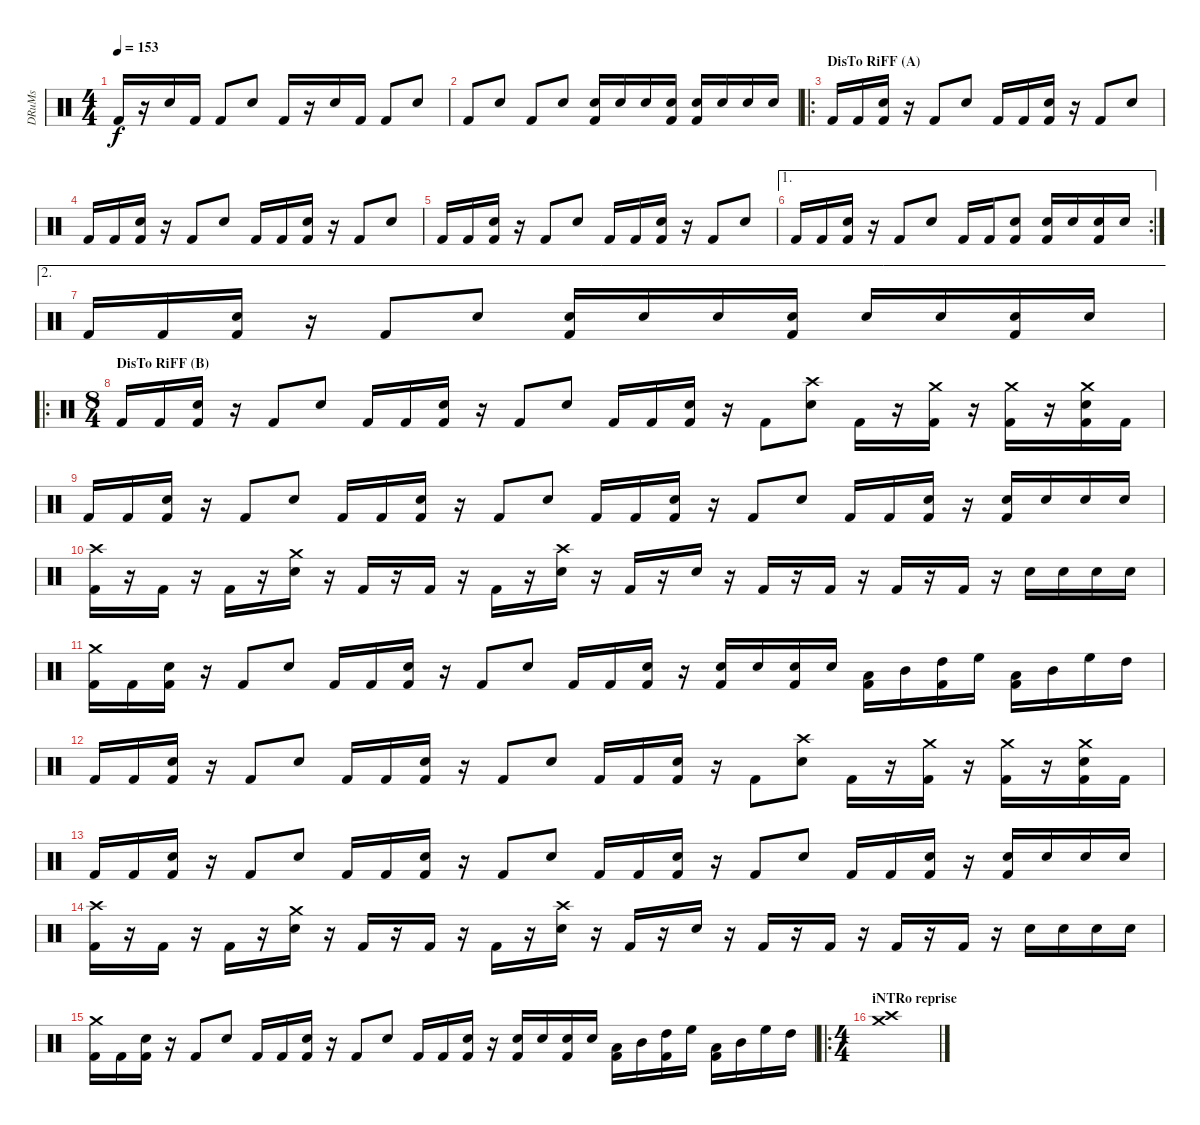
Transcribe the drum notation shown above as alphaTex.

\track ("DRuMs" "DRuMs") {instrument percussion}
\staff {score}
\articulation defaults
\ts (4 4)
\tempo 153
\clef neutral
\ks c "Kick (hit) 2".16{dy f}
r.16 "Electric Snare (hit)".16 "Kick (hit) 2".16 "Kick (hit) 2".8 "Electric Snare (hit)".8 "Kick (hit) 2".16 r.16 "Electric Snare (hit)".16 "Kick (hit) 2".16 "Kick (hit) 2".8 "Electric Snare (hit)".8 |
"Kick (hit) 2".8 "Electric Snare (hit)".8 "Kick (hit) 2".8 "Electric Snare (hit)".8 ("Metronome (bell)" "Kick (hit) 2").16 "Metronome (bell)".16 "Metronome (bell)".16 ("Metronome (bell)" "Kick (hit) 2").16 ("Metronome (bell)" "Kick (hit) 2").16 "Metronome (bell)".16 "Metronome (bell)".16 "Metronome (bell)".16 |
\ro
\section ("" "DisTo RiFF (A)")
"Kick (hit) 2".16 "Kick (hit) 2".16 ("Electric Snare (hit)" "Kick (hit) 2").16 r.16 "Kick (hit) 2".8 "Electric Snare (hit)".8 "Kick (hit) 2".16 "Kick (hit) 2".16 ("Electric Snare (hit)" "Kick (hit) 2").16 r.16 "Kick (hit) 2".8 "Electric Snare (hit)".8 |
"Kick (hit) 2".16 "Kick (hit) 2".16 ("Electric Snare (hit)" "Kick (hit) 2").16 r.16 "Kick (hit) 2".8 "Electric Snare (hit)".8 "Kick (hit) 2".16 "Kick (hit) 2".16 ("Electric Snare (hit)" "Kick (hit) 2").16 r.16 "Kick (hit) 2".8 "Electric Snare (hit)".8 |
"Kick (hit) 2".16 "Kick (hit) 2".16 ("Electric Snare (hit)" "Kick (hit) 2").16 r.16 "Kick (hit) 2".8 "Electric Snare (hit)".8 "Kick (hit) 2".16 "Kick (hit) 2".16 ("Electric Snare (hit)" "Kick (hit) 2").16 r.16 "Kick (hit) 2".8 "Electric Snare (hit)".8 |
\ae 1
\rc 2 "Kick (hit) 2".16 "Kick (hit) 2".16
("Electric Snare (hit)" "Kick (hit) 2").16 r.16 "Kick (hit) 2".8 "Electric Snare (hit)".8 "Kick (hit) 2".16 "Kick (hit) 2".16 ("Electric Snare (hit)" "Kick (hit) 2").8 ("Metronome (bell)" "Kick (hit) 2").16 "Metronome (bell)".16 ("Metronome (bell)" "Kick (hit) 2").16 "Metronome (bell)".16 |
\ae 2 "Kick (hit) 2".16 "Kick (hit) 2".16
("Electric Snare (hit)" "Kick (hit) 2").16 r.16 "Kick (hit) 2".8 "Electric Snare (hit)".8 ("Metronome (bell)" "Kick (hit) 2").16 "Metronome (bell)".16 "Metronome (bell)".16 ("Metronome (bell)" "Kick (hit) 2").16 "Metronome (bell)".16 "Metronome (bell)".16 ("Metronome (bell)" "Kick (hit) 2").16 "Metronome (bell)".16 |
\ro
\ts (8 4)
\section ("" "DisTo RiFF (B)")
"Kick (hit) 2".16 "Kick (hit) 2".16 ("Electric Snare (hit)" "Kick (hit) 2").16 r.16 "Kick (hit) 2".8 "Electric Snare (hit)".8 "Kick (hit) 2".16 "Kick (hit) 2".16 ("Electric Snare (hit)" "Kick (hit) 2").16 r.16 "Kick (hit) 2".8 "Electric Snare (hit)".8 "Kick (hit) 2".16 "Kick (hit) 2".16 ("Electric Snare (hit)" "Kick (hit) 2").16 r.16 "Kick (hit) 2".8 ("Crash high (hit)" "Electric Snare (hit)").8 "Kick (hit) 2".16 r.16 ("Crash medium (hit)" "Kick (hit) 2").16 r.16 ("Crash medium (hit)" "Kick (hit) 2").16 r.16 ("Crash medium (hit)" "Electric Snare (hit)" "Kick (hit) 2").16 "Kick (hit) 2".16 |
"Kick (hit) 2".16 "Kick (hit) 2".16 ("Electric Snare (hit)" "Kick (hit) 2").16 r.16 "Kick (hit) 2".8 "Electric Snare (hit)".8 "Kick (hit) 2".16 "Kick (hit) 2".16 ("Electric Snare (hit)" "Kick (hit) 2").16 r.16 "Kick (hit) 2".8 "Electric Snare (hit)".8 "Kick (hit) 2".16 "Kick (hit) 2".16 ("Electric Snare (hit)" "Kick (hit) 2").16 r.16 "Kick (hit) 2".8 "Electric Snare (hit)".8 "Kick (hit) 2".16 "Kick (hit) 2".16 ("Electric Snare (hit)" "Kick (hit) 2").16 r.16 ("Metronome (bell)" "Kick (hit) 2").16 "Metronome (bell)".16 "Metronome (bell)".16 "Metronome (bell)".16 |
("Crash high (hit)" "Kick (hit) 2").16 r.16 "Kick (hit) 2".16 r.16 "Kick (hit) 2".16 r.16 ("Crash medium (hit)" "Electric Snare (hit)").16 r.16 "Kick (hit) 2".16 r.16 "Kick (hit) 2".16 r.16 "Kick (hit) 2".16 r.16 ("Crash high (hit)" "Electric Snare (hit)").16 r.16 "Kick (hit) 2".16 r.16 "Electric Snare (hit)".16 r.16 "Kick (hit) 2".16 r.16 "Kick (hit) 2".16 r.16 "Kick (hit) 2".16 r.16 "Kick (hit) 2".16 r.16 "Metronome (bell)".16 "Metronome (bell)".16 "Metronome (bell)".16 "Metronome (bell)".16 |
("Crash medium (hit)" "Kick (hit) 2").16 "Kick (hit) 2".16 ("Electric Snare (hit)" "Kick (hit) 2").16 r.16 "Kick (hit) 2".8 "Electric Snare (hit)".8 "Kick (hit) 2".16 "Kick (hit) 2".16 ("Electric Snare (hit)" "Kick (hit) 2").16 r.16 "Kick (hit) 2".8 "Electric Snare (hit)".8 "Kick (hit) 2".16 "Kick (hit) 2".16 ("Electric Snare (hit)" "Kick (hit) 2").16 r.16 ("Metronome (bell)" "Kick (hit) 2").16 "Metronome (bell)".16 ("Metronome (bell)" "Kick (hit) 2").16 "Metronome (bell)".16 ("Low Tom (hit)" "Kick (hit) 2").16 "Mid Tom (hit)".16 ("High Tom (hit)" "Kick (hit) 2").16 "High Floor Tom (hit)".16 ("Low Tom (hit)" "Kick (hit) 2").16 "Mid Tom (hit)".16 "High Floor Tom (hit)".16 "High Tom (hit)".16 |
"Kick (hit) 2".16 "Kick (hit) 2".16 ("Electric Snare (hit)" "Kick (hit) 2").16 r.16 "Kick (hit) 2".8 "Electric Snare (hit)".8 "Kick (hit) 2".16 "Kick (hit) 2".16 ("Electric Snare (hit)" "Kick (hit) 2").16 r.16 "Kick (hit) 2".8 "Electric Snare (hit)".8 "Kick (hit) 2".16 "Kick (hit) 2".16 ("Electric Snare (hit)" "Kick (hit) 2").16 r.16 "Kick (hit) 2".8 ("Crash high (hit)" "Electric Snare (hit)").8 "Kick (hit) 2".16 r.16 ("Crash medium (hit)" "Kick (hit) 2").16 r.16 ("Crash medium (hit)" "Kick (hit) 2").16 r.16 ("Crash medium (hit)" "Electric Snare (hit)" "Kick (hit) 2").16 "Kick (hit) 2".16 |
"Kick (hit) 2".16 "Kick (hit) 2".16 ("Electric Snare (hit)" "Kick (hit) 2").16 r.16 "Kick (hit) 2".8 "Electric Snare (hit)".8 "Kick (hit) 2".16 "Kick (hit) 2".16 ("Electric Snare (hit)" "Kick (hit) 2").16 r.16 "Kick (hit) 2".8 "Electric Snare (hit)".8 "Kick (hit) 2".16 "Kick (hit) 2".16 ("Electric Snare (hit)" "Kick (hit) 2").16 r.16 "Kick (hit) 2".8 "Electric Snare (hit)".8 "Kick (hit) 2".16 "Kick (hit) 2".16 ("Electric Snare (hit)" "Kick (hit) 2").16 r.16 ("Metronome (bell)" "Kick (hit) 2").16 "Metronome (bell)".16 "Metronome (bell)".16 "Metronome (bell)".16 |
("Crash high (hit)" "Kick (hit) 2").16 r.16 "Kick (hit) 2".16 r.16 "Kick (hit) 2".16 r.16 ("Crash medium (hit)" "Electric Snare (hit)").16 r.16 "Kick (hit) 2".16 r.16 "Kick (hit) 2".16 r.16 "Kick (hit) 2".16 r.16 ("Crash high (hit)" "Electric Snare (hit)").16 r.16 "Kick (hit) 2".16 r.16 "Electric Snare (hit)".16 r.16 "Kick (hit) 2".16 r.16 "Kick (hit) 2".16 r.16 "Kick (hit) 2".16 r.16 "Kick (hit) 2".16 r.16 "Metronome (bell)".16 "Metronome (bell)".16 "Metronome (bell)".16 "Metronome (bell)".16 |
("Crash medium (hit)" "Kick (hit) 2").16 "Kick (hit) 2".16 ("Electric Snare (hit)" "Kick (hit) 2").16 r.16 "Kick (hit) 2".8 "Electric Snare (hit)".8 "Kick (hit) 2".16 "Kick (hit) 2".16 ("Electric Snare (hit)" "Kick (hit) 2").16 r.16 "Kick (hit) 2".8 "Electric Snare (hit)".8 "Kick (hit) 2".16 "Kick (hit) 2".16 ("Electric Snare (hit)" "Kick (hit) 2").16 r.16 ("Metronome (bell)" "Kick (hit) 2").16 "Metronome (bell)".16 ("Metronome (bell)" "Kick (hit) 2").16 "Metronome (bell)".16 ("Low Tom (hit)" "Kick (hit) 2").16 "Mid Tom (hit)".16 ("High Tom (hit)" "Kick (hit) 2").16 "High Floor Tom (hit)".16 ("Low Tom (hit)" "Kick (hit) 2").16 "Mid Tom (hit)".16 "High Floor Tom (hit)".16 "High Tom (hit)".16 |
\ro
\ts (4 4)
\section ("" "iNTRo reprise")
("Crash medium (hit)" "Crash high (hit)").1
